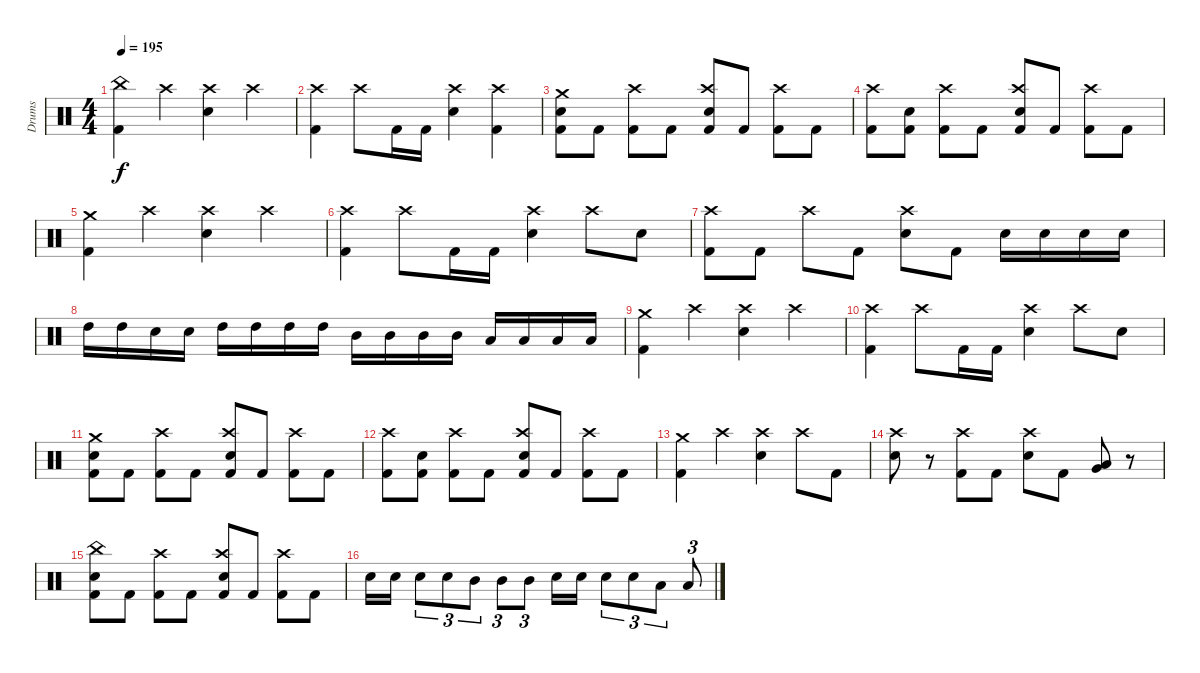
\track ("Drums" "Drums") {instrument percussion}
\staff {score}
\articulation defaults
\ts (4 4)
\tempo 195
\clef neutral
\ks c
("China (hit)" "Kick (hit) 2").4{dy f} "Crash high (hit)".4 ("Crash high (hit)" "Snare (hit) 2").4 "Crash high (hit)".4 |
("Crash high (hit)" "Kick (hit) 2").4 "Crash high (hit)".8 "Kick (hit) 2".16 "Kick (hit) 2".16 ("Crash high (hit)" "Snare (hit) 2").4 ("Crash high (hit)" "Kick (hit) 2").4 |
("Crash medium (hit)" "Snare (hit) 2" "Kick (hit) 2").8 "Kick (hit) 2".8 ("Crash high (hit)" "Kick (hit) 2").8 "Kick (hit) 2".8 ("Crash high (hit)" "Snare (hit) 2" "Kick (hit) 2").8 "Kick (hit) 2".8 ("Crash high (hit)" "Kick (hit) 2").8 "Kick (hit) 2".8 |
("Crash high (hit)" "Kick (hit) 2").8 ("Snare (hit) 2" "Kick (hit) 2").8 ("Crash high (hit)" "Kick (hit) 2").8 "Kick (hit) 2".8 ("Crash high (hit)" "Snare (hit) 2" "Kick (hit) 2").8 "Kick (hit) 2".8 ("Crash high (hit)" "Kick (hit) 2").8 "Kick (hit) 2".8 |
("Crash medium (hit)" "Kick (hit) 2").4 "Crash high (hit)".4 ("Crash high (hit)" "Snare (hit) 2").4 "Crash high (hit)".4 |
("Crash high (hit)" "Kick (hit) 2").4 "Crash high (hit)".8 "Kick (hit) 2".16 "Kick (hit) 2".16 ("Crash high (hit)" "Snare (hit) 2").4 "Crash high (hit)".8 "Snare (hit) 2".8 |
("Crash high (hit)" "Kick (hit) 2").8 "Kick (hit) 2".8 "Crash high (hit)".8 "Kick (hit) 2".8 ("Crash high (hit)" "Snare (hit) 2").8 "Kick (hit) 2".8 "Snare (hit) 2".16 "Snare (hit) 2".16 "Snare (hit) 2".16 "Snare (hit) 2".16 |
"High Tom (hit)".16 "High Tom (hit)".16 "Snare (hit) 2".16 "Snare (hit) 2".16 "High Tom (hit)".16 "High Tom (hit)".16 "High Tom (hit)".16 "High Tom (hit)".16 "Mid Tom (hit)".16 "Mid Tom (hit)".16 "Mid Tom (hit)".16 "Mid Tom (hit)".16 "Low Tom (hit)".16 "Low Tom (hit)".16 "Low Tom (hit)".16 "Low Tom (hit)".16 |
("Crash medium (hit)" "Kick (hit) 2").4 "Crash high (hit)".4 ("Crash high (hit)" "Snare (hit) 2").4 "Crash high (hit)".4 |
("Crash high (hit)" "Kick (hit) 2").4 "Crash high (hit)".8 "Kick (hit) 2".16 "Kick (hit) 2".16 ("Crash high (hit)" "Snare (hit) 2").4 "Crash high (hit)".8 "Snare (hit) 2".8 |
("Crash medium (hit)" "Snare (hit) 2" "Kick (hit) 2").8 "Kick (hit) 2".8 ("Crash high (hit)" "Kick (hit) 2").8 "Kick (hit) 2".8 ("Crash high (hit)" "Snare (hit) 2" "Kick (hit) 2").8 "Kick (hit) 2".8 ("Crash high (hit)" "Kick (hit) 2").8 "Kick (hit) 2".8 |
("Crash high (hit)" "Kick (hit) 2").8 ("Snare (hit) 2" "Kick (hit) 2").8 ("Crash high (hit)" "Kick (hit) 2").8 "Kick (hit) 2".8 ("Crash high (hit)" "Snare (hit) 2" "Kick (hit) 2").8 "Kick (hit) 2".8 ("Crash high (hit)" "Kick (hit) 2").8 "Kick (hit) 2".8 |
("Crash medium (hit)" "Kick (hit) 2").4 "Crash high (hit)".4 ("Crash high (hit)" "Snare (hit) 2").4 "Crash high (hit)".8 "Kick (hit) 2".8 |
("Crash high (hit)" "Snare (hit) 2").8 r.8 ("Crash high (hit)" "Kick (hit) 2").8 "Kick (hit) 2".8 ("Crash high (hit)" "Snare (hit) 2").8 "Kick (hit) 2".8 ("Low Tom (hit)" "Very Low Tom (hit)").8 r.8 |
("China (hit)" "Snare (hit) 2" "Kick (hit) 2").8 "Kick (hit) 2".8 ("Crash high (hit)" "Kick (hit) 2").8 "Kick (hit) 2".8 ("Crash high (hit)" "Snare (hit) 2" "Kick (hit) 2").8 "Kick (hit) 2".8 ("Crash high (hit)" "Kick (hit) 2").8 "Kick (hit) 2".8 |
"Snare (hit) 2".16 "Snare (hit) 2".16 "Snare (hit) 2".8{tu (3 2)} "Snare (hit) 2".8{tu (3 2)} "Mid Tom (hit)".8{tu (3 2)} "Mid Tom (hit)".8{tu (3 2)} "Mid Tom (hit)".8{tu (3 2)} "Snare (hit) 2".16 "Snare (hit) 2".16 "Snare (hit) 2".8{tu (3 2)} "Snare (hit) 2".8{tu (3 2)} "Low Tom (hit)".8{tu (3 2)} "Low Tom (hit)".8{tu (3 2)}
